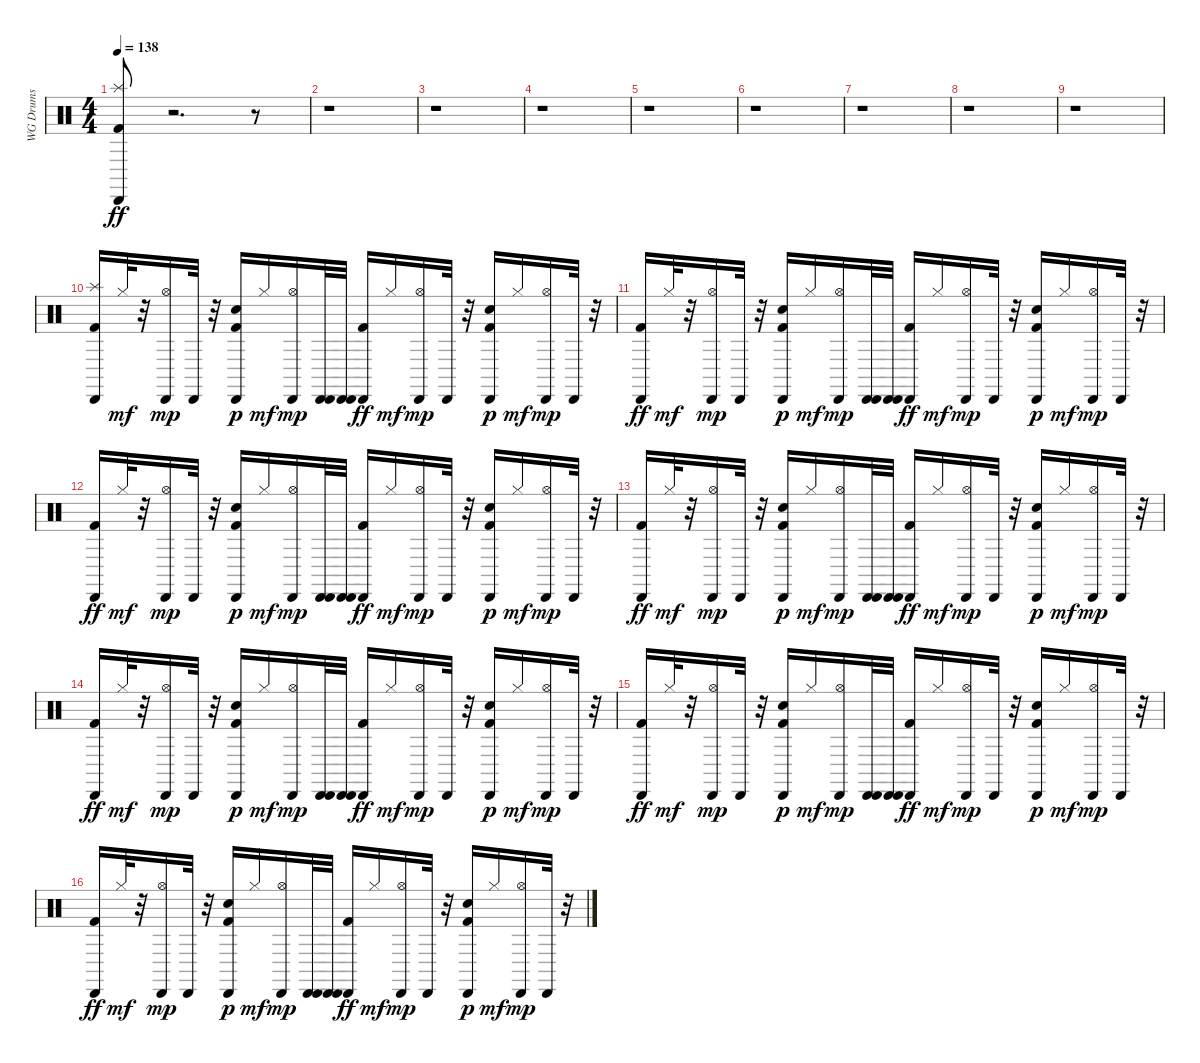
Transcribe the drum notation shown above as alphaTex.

\track ("WG Drums" "WG Drums") {instrument percussion}
\staff {score}
\articulation defaults
\ts (4 4)
\tempo 138
\clef neutral
\ks c
("Cabasa (hit)" "Splash (hit)" "Kick (hit) 2").8{dy ff} r.2{d} r.8 |
r.1 |
r.1 |
r.1 |
r.1 |
r.1 |
r.1 |
r.1 |
r.1 |
("Splash (hit)" "Cabasa (hit)" "Kick (hit) 2").16 "Hi-Hat (closed)".32{dy mf} r.32 ("Cabasa (hit)" "Hi-Hat (open)").16{dy mp} "Cabasa (hit)".32 r.32 ("Cabasa (hit)" "Kick (hit) 2" "Hand Clap (hit)").16{dy p} "Hi-Hat (closed)".16{dy mf} ("Cabasa (hit)" "Hi-Hat (open)").16{dy mp} ("Cabasa (hit)" "Cabasa (hit)").32 ("Cabasa (hit)" "Cabasa (hit)").32 ("Cabasa (hit)" "Kick (hit) 2").16{dy ff} "Hi-Hat (closed)".16{dy mf} ("Cabasa (hit)" "Hi-Hat (open)").16{dy mp} "Cabasa (hit)".32 r.32 ("Cabasa (hit)" "Kick (hit) 2" "Hand Clap (hit)").16{dy p} "Hi-Hat (closed)".16{dy mf} ("Cabasa (hit)" "Hi-Hat (open)").16{dy mp} "Cabasa (hit)".32 r.32 |
("Cabasa (hit)" "Kick (hit) 2").16{dy ff} "Hi-Hat (closed)".32{dy mf} r.32 ("Cabasa (hit)" "Hi-Hat (open)").16{dy mp} "Cabasa (hit)".32 r.32 ("Cabasa (hit)" "Kick (hit) 2" "Hand Clap (hit)").16{dy p} "Hi-Hat (closed)".16{dy mf} ("Cabasa (hit)" "Hi-Hat (open)").16{dy mp} ("Cabasa (hit)" "Cabasa (hit)").32 ("Cabasa (hit)" "Cabasa (hit)").32 ("Cabasa (hit)" "Kick (hit) 2").16{dy ff} "Hi-Hat (closed)".16{dy mf} ("Cabasa (hit)" "Hi-Hat (open)").16{dy mp} "Cabasa (hit)".32 r.32 ("Cabasa (hit)" "Kick (hit) 2" "Hand Clap (hit)").16{dy p} "Hi-Hat (closed)".16{dy mf} ("Cabasa (hit)" "Hi-Hat (open)").16{dy mp} "Cabasa (hit)".32 r.32 |
("Cabasa (hit)" "Kick (hit) 2").16{dy ff} "Hi-Hat (closed)".32{dy mf} r.32 ("Cabasa (hit)" "Hi-Hat (open)").16{dy mp} "Cabasa (hit)".32 r.32 ("Cabasa (hit)" "Kick (hit) 2" "Hand Clap (hit)").16{dy p} "Hi-Hat (closed)".16{dy mf} ("Cabasa (hit)" "Hi-Hat (open)").16{dy mp} ("Cabasa (hit)" "Cabasa (hit)").32 ("Cabasa (hit)" "Cabasa (hit)").32 ("Cabasa (hit)" "Kick (hit) 2").16{dy ff} "Hi-Hat (closed)".16{dy mf} ("Cabasa (hit)" "Hi-Hat (open)").16{dy mp} "Cabasa (hit)".32 r.32 ("Cabasa (hit)" "Kick (hit) 2" "Hand Clap (hit)").16{dy p} "Hi-Hat (closed)".16{dy mf} ("Cabasa (hit)" "Hi-Hat (open)").16{dy mp} "Cabasa (hit)".32 r.32 |
("Cabasa (hit)" "Kick (hit) 2").16{dy ff} "Hi-Hat (closed)".32{dy mf} r.32 ("Cabasa (hit)" "Hi-Hat (open)").16{dy mp} "Cabasa (hit)".32 r.32 ("Cabasa (hit)" "Kick (hit) 2" "Hand Clap (hit)").16{dy p} "Hi-Hat (closed)".16{dy mf} ("Cabasa (hit)" "Hi-Hat (open)").16{dy mp} ("Cabasa (hit)" "Cabasa (hit)").32 ("Cabasa (hit)" "Cabasa (hit)").32 ("Cabasa (hit)" "Kick (hit) 2").16{dy ff} "Hi-Hat (closed)".16{dy mf} ("Cabasa (hit)" "Hi-Hat (open)").16{dy mp} "Cabasa (hit)".32 r.32 ("Cabasa (hit)" "Kick (hit) 2" "Hand Clap (hit)").16{dy p} "Hi-Hat (closed)".16{dy mf} ("Cabasa (hit)" "Hi-Hat (open)").16{dy mp} "Cabasa (hit)".32 r.32 |
("Cabasa (hit)" "Kick (hit) 2").16{dy ff} "Hi-Hat (closed)".32{dy mf} r.32 ("Cabasa (hit)" "Hi-Hat (open)").16{dy mp} "Cabasa (hit)".32 r.32 ("Cabasa (hit)" "Kick (hit) 2" "Hand Clap (hit)").16{dy p} "Hi-Hat (closed)".16{dy mf} ("Cabasa (hit)" "Hi-Hat (open)").16{dy mp} ("Cabasa (hit)" "Cabasa (hit)").32 ("Cabasa (hit)" "Cabasa (hit)").32 ("Cabasa (hit)" "Kick (hit) 2").16{dy ff} "Hi-Hat (closed)".16{dy mf} ("Cabasa (hit)" "Hi-Hat (open)").16{dy mp} "Cabasa (hit)".32 r.32 ("Cabasa (hit)" "Kick (hit) 2" "Hand Clap (hit)").16{dy p} "Hi-Hat (closed)".16{dy mf} ("Cabasa (hit)" "Hi-Hat (open)").16{dy mp} "Cabasa (hit)".32 r.32 |
("Cabasa (hit)" "Kick (hit) 2").16{dy ff} "Hi-Hat (closed)".32{dy mf} r.32 ("Cabasa (hit)" "Hi-Hat (open)").16{dy mp} "Cabasa (hit)".32 r.32 ("Cabasa (hit)" "Kick (hit) 2" "Hand Clap (hit)").16{dy p} "Hi-Hat (closed)".16{dy mf} ("Cabasa (hit)" "Hi-Hat (open)").16{dy mp} ("Cabasa (hit)" "Cabasa (hit)").32 ("Cabasa (hit)" "Cabasa (hit)").32 ("Cabasa (hit)" "Kick (hit) 2").16{dy ff} "Hi-Hat (closed)".16{dy mf} ("Cabasa (hit)" "Hi-Hat (open)").16{dy mp} "Cabasa (hit)".32 r.32 ("Cabasa (hit)" "Kick (hit) 2" "Hand Clap (hit)").16{dy p} "Hi-Hat (closed)".16{dy mf} ("Cabasa (hit)" "Hi-Hat (open)").16{dy mp} "Cabasa (hit)".32 r.32 |
("Cabasa (hit)" "Kick (hit) 2").16{dy ff} "Hi-Hat (closed)".32{dy mf} r.32 ("Cabasa (hit)" "Hi-Hat (open)").16{dy mp} "Cabasa (hit)".32 r.32 ("Cabasa (hit)" "Kick (hit) 2" "Hand Clap (hit)").16{dy p} "Hi-Hat (closed)".16{dy mf} ("Cabasa (hit)" "Hi-Hat (open)").16{dy mp} ("Cabasa (hit)" "Cabasa (hit)").32 ("Cabasa (hit)" "Cabasa (hit)").32 ("Cabasa (hit)" "Kick (hit) 2").16{dy ff} "Hi-Hat (closed)".16{dy mf} ("Cabasa (hit)" "Hi-Hat (open)").16{dy mp} "Cabasa (hit)".32 r.32 ("Cabasa (hit)" "Kick (hit) 2" "Hand Clap (hit)").16{dy p} "Hi-Hat (closed)".16{dy mf} ("Cabasa (hit)" "Hi-Hat (open)").16{dy mp} "Cabasa (hit)".32 r.32
